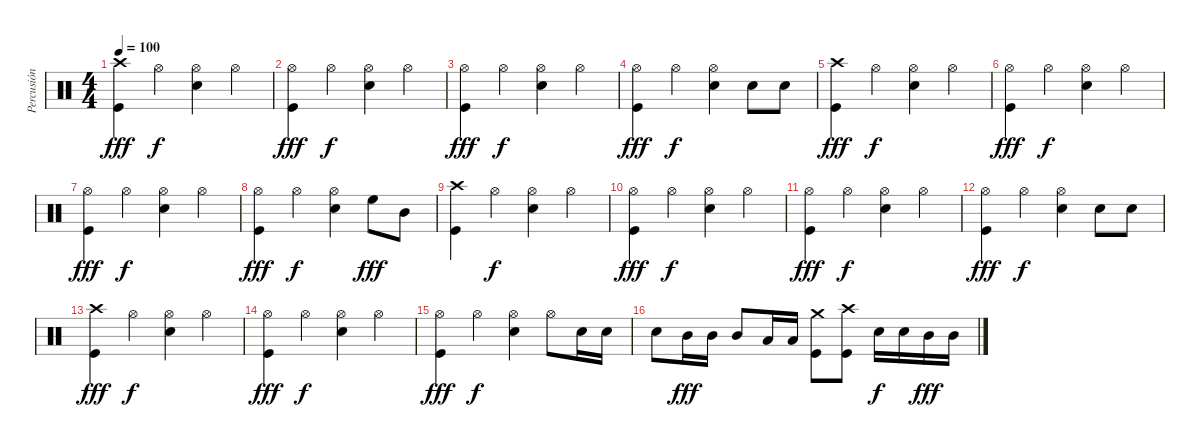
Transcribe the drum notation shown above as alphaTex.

\track ("Percusión" "Percusión") {instrument percussion}
\staff {score}
\articulation defaults
\ts (4 4)
\tempo 100
\clef neutral
\ks c
("Crash high (hit)" "Kick (hit)").4{dy fff} "Hi-Hat (open)".4{dy f} ("Hi-Hat (open)" "Electric Snare (hit)").4 "Hi-Hat (open)".4 |
("Hi-Hat (open)" "Kick (hit)").4{dy fff} "Hi-Hat (open)".4{dy f} ("Hi-Hat (open)" "Electric Snare (hit)").4 "Hi-Hat (open)".4 |
("Hi-Hat (open)" "Kick (hit)").4{dy fff} "Hi-Hat (open)".4{dy f} ("Hi-Hat (open)" "Electric Snare (hit)").4 "Hi-Hat (open)".4 |
("Hi-Hat (open)" "Kick (hit)").4{dy fff} "Hi-Hat (open)".4{dy f} ("Hi-Hat (open)" "Electric Snare (hit)").4 "Electric Snare (hit)".8 "Electric Snare (hit)".8 |
("Crash high (hit)" "Kick (hit)").4{dy fff} "Hi-Hat (open)".4{dy f} ("Hi-Hat (open)" "Electric Snare (hit)").4 "Hi-Hat (open)".4 |
("Hi-Hat (open)" "Kick (hit)").4{dy fff} "Hi-Hat (open)".4{dy f} ("Hi-Hat (open)" "Electric Snare (hit)").4 "Hi-Hat (open)".4 |
("Hi-Hat (open)" "Kick (hit)").4{dy fff} "Hi-Hat (open)".4{dy f} ("Hi-Hat (open)" "Electric Snare (hit)").4 "Hi-Hat (open)".4 |
("Hi-Hat (open)" "Kick (hit)").4{dy fff} "Hi-Hat (open)".4{dy f} ("Hi-Hat (open)" "Electric Snare (hit)").4 "High Floor Tom (hit)".8{dy fff} "Mid Tom (hit)".8 |
("Crash high (hit)" "Kick (hit)").4 "Hi-Hat (open)".4{dy f} ("Hi-Hat (open)" "Electric Snare (hit)").4 "Hi-Hat (open)".4 |
("Hi-Hat (open)" "Kick (hit)").4{dy fff} "Hi-Hat (open)".4{dy f} ("Hi-Hat (open)" "Electric Snare (hit)").4 "Hi-Hat (open)".4 |
("Hi-Hat (open)" "Kick (hit)").4{dy fff} "Hi-Hat (open)".4{dy f} ("Hi-Hat (open)" "Electric Snare (hit)").4 "Hi-Hat (open)".4 |
("Hi-Hat (open)" "Kick (hit)").4{dy fff} "Hi-Hat (open)".4{dy f} ("Hi-Hat (open)" "Electric Snare (hit)").4 "Electric Snare (hit)".8 "Electric Snare (hit)".8 |
("Crash high (hit)" "Kick (hit)").4{dy fff} "Hi-Hat (open)".4{dy f} ("Hi-Hat (open)" "Electric Snare (hit)").4 "Hi-Hat (open)".4 |
("Hi-Hat (open)" "Kick (hit)").4{dy fff} "Hi-Hat (open)".4{dy f} ("Hi-Hat (open)" "Electric Snare (hit)").4 "Hi-Hat (open)".4 |
("Hi-Hat (open)" "Kick (hit)").4{dy fff} "Hi-Hat (open)".4{dy f} ("Hi-Hat (open)" "Electric Snare (hit)").4 "Hi-Hat (open)".8 "Electric Snare (hit)".16 "Electric Snare (hit)".16 |
"Electric Snare (hit)".8 "Mid Tom (hit)".16{dy fff} "Mid Tom (hit)".16 "Mid Tom (hit)".8 "Low Tom (hit)".16 "Low Tom (hit)".16 ("Crash medium (hit)" "Kick (hit)").8 ("Crash high (hit)" "Kick (hit)").8 "Electric Snare (hit)".16{dy f} "Electric Snare (hit)".16 "Mid Tom (hit)".16{dy fff} "Mid Tom (hit)".16
